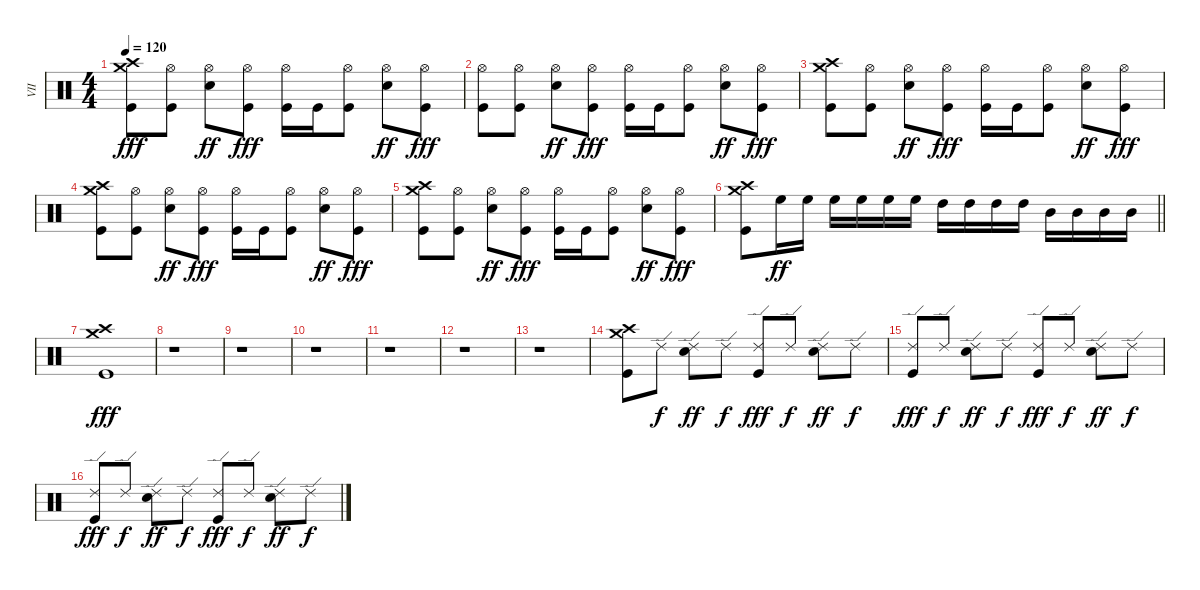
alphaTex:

\track ("VII" "VII") {instrument percussion}
\staff {score}
\articulation defaults
\ts (4 4)
\tempo 120
\clef neutral
\ks c
("Crash high (hit)" "Crash medium (hit)" "Kick (hit)").8{dy fff} ("Hi-Hat (open)" "Kick (hit)").8 ("Hi-Hat (open)" "Snare (hit) 2").8{dy ff} ("Hi-Hat (open)" "Kick (hit)").8{dy fff} ("Hi-Hat (open)" "Kick (hit)").16 "Kick (hit)".16 ("Hi-Hat (open)" "Kick (hit)").8 ("Hi-Hat (open)" "Snare (hit) 2").8{dy ff} ("Hi-Hat (open)" "Kick (hit)").8{dy fff} |
("Hi-Hat (open)" "Kick (hit)").8 ("Hi-Hat (open)" "Kick (hit)").8 ("Hi-Hat (open)" "Snare (hit) 2").8{dy ff} ("Hi-Hat (open)" "Kick (hit)").8{dy fff} ("Hi-Hat (open)" "Kick (hit)").16 "Kick (hit)".16 ("Hi-Hat (open)" "Kick (hit)").8 ("Hi-Hat (open)" "Snare (hit) 2").8{dy ff} ("Hi-Hat (open)" "Kick (hit)").8{dy fff} |
("Crash high (hit)" "Crash medium (hit)" "Kick (hit)").8 ("Hi-Hat (open)" "Kick (hit)").8 ("Hi-Hat (open)" "Snare (hit) 2").8{dy ff} ("Hi-Hat (open)" "Kick (hit)").8{dy fff} ("Hi-Hat (open)" "Kick (hit)").16 "Kick (hit)".16 ("Hi-Hat (open)" "Kick (hit)").8 ("Hi-Hat (open)" "Snare (hit) 2").8{dy ff} ("Hi-Hat (open)" "Kick (hit)").8{dy fff} |
("Crash high (hit)" "Crash medium (hit)" "Kick (hit)").8 ("Hi-Hat (open)" "Kick (hit)").8 ("Hi-Hat (open)" "Snare (hit) 2").8{dy ff} ("Hi-Hat (open)" "Kick (hit)").8{dy fff} ("Hi-Hat (open)" "Kick (hit)").16 "Kick (hit)".16 ("Hi-Hat (open)" "Kick (hit)").8 ("Hi-Hat (open)" "Snare (hit) 2").8{dy ff} ("Hi-Hat (open)" "Kick (hit)").8{dy fff} |
("Crash high (hit)" "Crash medium (hit)" "Kick (hit)").8 ("Hi-Hat (open)" "Kick (hit)").8 ("Hi-Hat (open)" "Snare (hit) 2").8{dy ff} ("Hi-Hat (open)" "Kick (hit)").8{dy fff} ("Hi-Hat (open)" "Kick (hit)").16 "Kick (hit)".16 ("Hi-Hat (open)" "Kick (hit)").8 ("Hi-Hat (open)" "Snare (hit) 2").8{dy ff} ("Hi-Hat (open)" "Kick (hit)").8{dy fff} |
\barLineRight lightlight
("Crash high (hit)" "Crash medium (hit)" "Kick (hit)").8 "High Floor Tom (hit)".16{dy ff} "High Floor Tom (hit)".16 "High Floor Tom (hit)".16 "High Floor Tom (hit)".16 "High Floor Tom (hit)".16 "High Floor Tom (hit)".16 "High Tom (hit)".16 "High Tom (hit)".16 "High Tom (hit)".16 "High Tom (hit)".16 "Mid Tom (hit)".16 "Mid Tom (hit)".16 "Mid Tom (hit)".16 "Mid Tom (hit)".16 |
("Crash high (hit)" "Crash medium (hit)" "Kick (hit)").1{dy fff} |
r.1 |
r.1 |
r.1 |
r.1 |
r.1 |
r.1 |
("Crash high (hit)" "Crash medium (hit)" "Kick (hit)").8 "Ride (edge) 2".8{dy f} ("Ride (edge) 2" "Snare (hit) 2").8{dy ff} "Ride (edge) 2".8{dy f} ("Ride (edge) 2" "Kick (hit)").8{dy fff} "Ride (edge) 2".8{dy f} ("Ride (edge) 2" "Snare (hit) 2").8{dy ff} "Ride (edge) 2".8{dy f} |
("Ride (edge) 2" "Kick (hit)").8{dy fff} "Ride (edge) 2".8{dy f} ("Ride (edge) 2" "Snare (hit) 2").8{dy ff} "Ride (edge) 2".8{dy f} ("Ride (edge) 2" "Kick (hit)").8{dy fff} "Ride (edge) 2".8{dy f} ("Ride (edge) 2" "Snare (hit) 2").8{dy ff} "Ride (edge) 2".8{dy f} |
("Ride (edge) 2" "Kick (hit)").8{dy fff} "Ride (edge) 2".8{dy f} ("Ride (edge) 2" "Snare (hit) 2").8{dy ff} "Ride (edge) 2".8{dy f} ("Ride (edge) 2" "Kick (hit)").8{dy fff} "Ride (edge) 2".8{dy f} ("Ride (edge) 2" "Snare (hit) 2").8{dy ff} "Ride (edge) 2".8{dy f}
